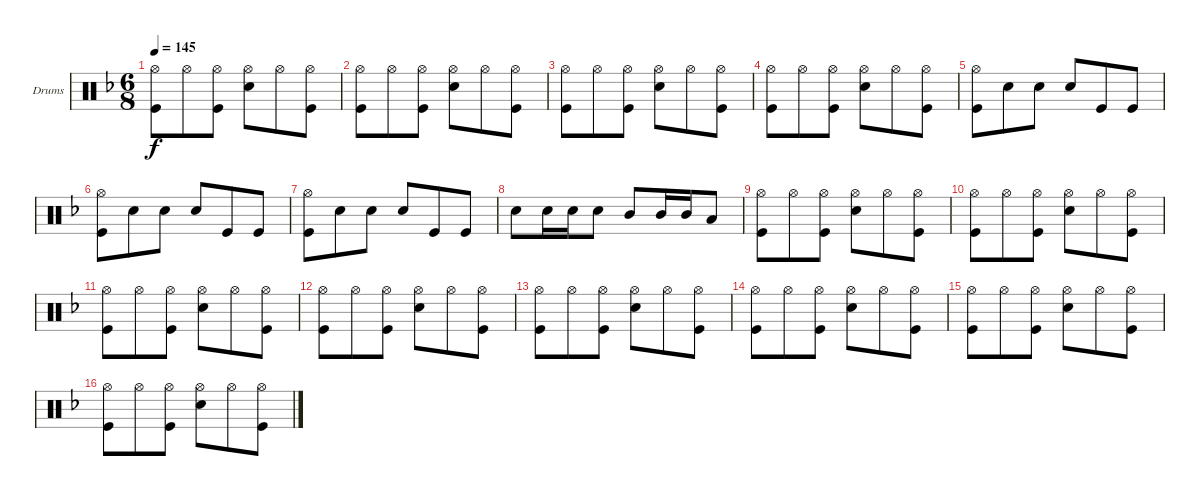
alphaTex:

\bracketExtendMode groupsimilarinstruments
\firstSystemTrackNameOrientation horizontal
\otherSystemsTrackNameOrientation horizontal
\track ("Drumkit" "Drums") {instrument percussion}
\staff {score}
\articulation defaults
\ts (6 8)
\tempo 145
\clef neutral
\ks f
("Hi-Hat (open)" "Kick (hit)").8{dy f} "Hi-Hat (open)".8 ("Hi-Hat (open)" "Kick (hit)").8 ("Hi-Hat (open)" "Snare (hit) 2").8 "Hi-Hat (open)".8 ("Hi-Hat (open)" "Kick (hit)").8 |
("Hi-Hat (open)" "Kick (hit)").8 "Hi-Hat (open)".8 ("Hi-Hat (open)" "Kick (hit)").8 ("Hi-Hat (open)" "Snare (hit) 2").8 "Hi-Hat (open)".8 ("Hi-Hat (open)" "Kick (hit)").8 |
("Hi-Hat (open)" "Kick (hit)").8 "Hi-Hat (open)".8 ("Hi-Hat (open)" "Kick (hit)").8 ("Hi-Hat (open)" "Snare (hit) 2").8 "Hi-Hat (open)".8 ("Hi-Hat (open)" "Kick (hit)").8 |
("Hi-Hat (open)" "Kick (hit)").8 "Hi-Hat (open)".8 ("Hi-Hat (open)" "Kick (hit)").8 ("Hi-Hat (open)" "Snare (hit) 2").8 "Hi-Hat (open)".8 ("Hi-Hat (open)" "Kick (hit)").8 |
("Hi-Hat (open)" "Kick (hit)").8 "Snare (hit) 2".8 "Snare (hit) 2".8 "Snare (hit) 2".8 "Kick (hit)".8 "Kick (hit)".8 |
("Hi-Hat (open)" "Kick (hit)").8 "Snare (hit) 2".8 "Snare (hit) 2".8 "Snare (hit) 2".8 "Kick (hit)".8 "Kick (hit)".8 |
("Hi-Hat (open)" "Kick (hit)").8 "Snare (hit) 2".8 "Snare (hit) 2".8 "Snare (hit) 2".8 "Kick (hit)".8 "Kick (hit)".8 |
"Snare (hit) 2".8 "Snare (hit) 2".16 "Snare (hit) 2".16 "Snare (hit) 2".8 "Mid Tom (hit)".8 "Mid Tom (hit)".16 "Mid Tom (hit)".16 "Low Tom (hit)".8 |
("Hi-Hat (open)" "Kick (hit)").8 "Hi-Hat (open)".8 ("Hi-Hat (open)" "Kick (hit)").8 ("Hi-Hat (open)" "Snare (hit) 2").8 "Hi-Hat (open)".8 ("Hi-Hat (open)" "Kick (hit)").8 |
("Hi-Hat (open)" "Kick (hit)").8 "Hi-Hat (open)".8 ("Hi-Hat (open)" "Kick (hit)").8 ("Hi-Hat (open)" "Snare (hit) 2").8 "Hi-Hat (open)".8 ("Hi-Hat (open)" "Kick (hit)").8 |
("Hi-Hat (open)" "Kick (hit)").8 "Hi-Hat (open)".8 ("Hi-Hat (open)" "Kick (hit)").8 ("Hi-Hat (open)" "Snare (hit) 2").8 "Hi-Hat (open)".8 ("Hi-Hat (open)" "Kick (hit)").8 |
("Hi-Hat (open)" "Kick (hit)").8 "Hi-Hat (open)".8 ("Hi-Hat (open)" "Kick (hit)").8 ("Hi-Hat (open)" "Snare (hit) 2").8 "Hi-Hat (open)".8 ("Hi-Hat (open)" "Kick (hit)").8 |
("Hi-Hat (open)" "Kick (hit)").8 "Hi-Hat (open)".8 ("Hi-Hat (open)" "Kick (hit)").8 ("Hi-Hat (open)" "Snare (hit) 2").8 "Hi-Hat (open)".8 ("Hi-Hat (open)" "Kick (hit)").8 |
("Hi-Hat (open)" "Kick (hit)").8 "Hi-Hat (open)".8 ("Hi-Hat (open)" "Kick (hit)").8 ("Hi-Hat (open)" "Snare (hit) 2").8 "Hi-Hat (open)".8 ("Hi-Hat (open)" "Kick (hit)").8 |
("Hi-Hat (open)" "Kick (hit)").8 "Hi-Hat (open)".8 ("Hi-Hat (open)" "Kick (hit)").8 ("Hi-Hat (open)" "Snare (hit) 2").8 "Hi-Hat (open)".8 ("Hi-Hat (open)" "Kick (hit)").8 |
("Hi-Hat (open)" "Kick (hit)").8 "Hi-Hat (open)".8 ("Hi-Hat (open)" "Kick (hit)").8 ("Hi-Hat (open)" "Snare (hit) 2").8 "Hi-Hat (open)".8 ("Hi-Hat (open)" "Kick (hit)").8
